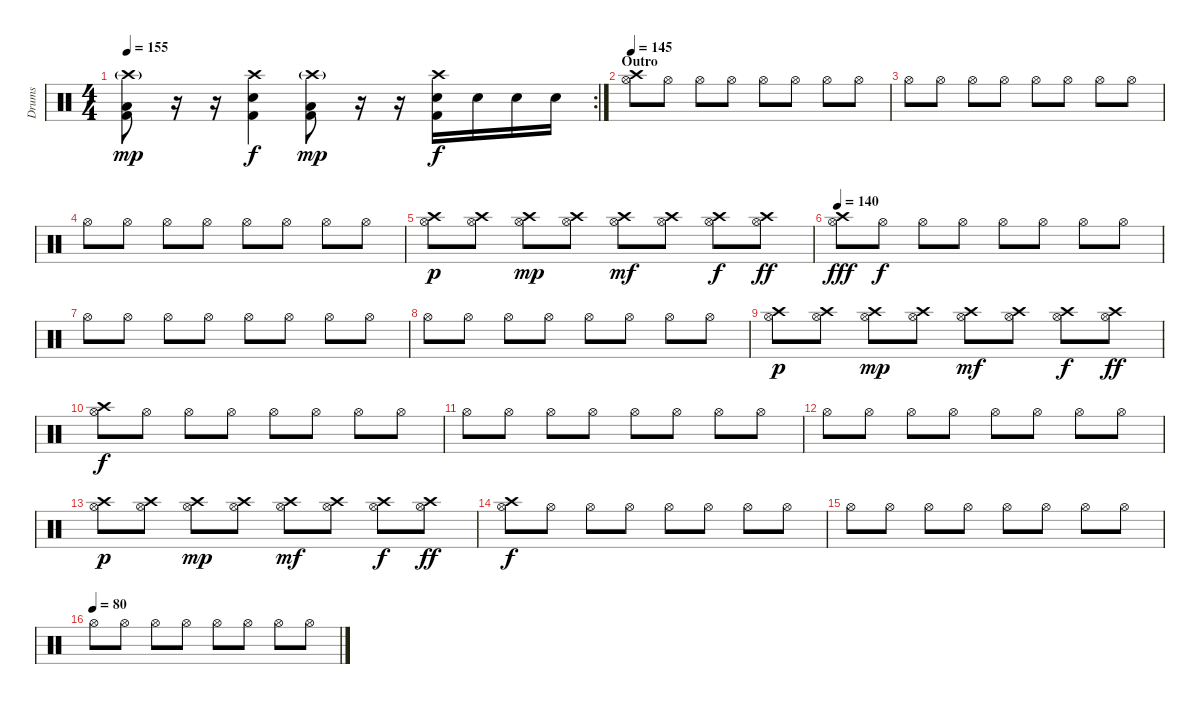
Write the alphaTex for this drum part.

\track ("Drums" "Drums") {instrument percussion}
\staff {score}
\articulation defaults
\rc 2
\ts (4 4)
\tempo 155
\clef neutral
\ks c
("Crash high (hit)"{g} "Low Tom (hit)" "Kick (hit) 2").8{dy mp} r.16 r.16 ("Crash high (hit)" "Electric Snare (hit)" "Kick (hit) 2").4{dy f} ("Crash high (hit)"{g} "Low Tom (hit)" "Kick (hit) 2").8{dy mp} r.16 r.16 ("Crash high (hit)" "Electric Snare (hit)" "Kick (hit) 2").16{dy f} "Electric Snare (hit)".16 "Electric Snare (hit)".16 "Electric Snare (hit)".16 |
\section ("" "Outro")
\tempo 145
("Hi-Hat (open)" "Crash high (hit)").8 "Hi-Hat (open)".8 "Hi-Hat (open)".8 "Hi-Hat (open)".8 "Hi-Hat (open)".8 "Hi-Hat (open)".8 "Hi-Hat (open)".8 "Hi-Hat (open)".8 |
"Hi-Hat (open)".8 "Hi-Hat (open)".8 "Hi-Hat (open)".8 "Hi-Hat (open)".8 "Hi-Hat (open)".8 "Hi-Hat (open)".8 "Hi-Hat (open)".8 "Hi-Hat (open)".8 |
"Hi-Hat (open)".8 "Hi-Hat (open)".8 "Hi-Hat (open)".8 "Hi-Hat (open)".8 "Hi-Hat (open)".8 "Hi-Hat (open)".8 "Hi-Hat (open)".8 "Hi-Hat (open)".8 |
("Hi-Hat (open)" "Crash high (hit)").8{dy p} ("Hi-Hat (open)" "Crash high (hit)").8 ("Hi-Hat (open)" "Crash high (hit)").8{dy mp} ("Hi-Hat (open)" "Crash high (hit)").8 ("Hi-Hat (open)" "Crash high (hit)").8{dy mf} ("Hi-Hat (open)" "Crash high (hit)").8 ("Hi-Hat (open)" "Crash high (hit)").8{dy f} ("Hi-Hat (open)" "Crash high (hit)").8{dy ff} |
\tempo 140
("Hi-Hat (open)" "Crash high (hit)").8{dy fff} "Hi-Hat (open)".8{dy f} "Hi-Hat (open)".8 "Hi-Hat (open)".8 "Hi-Hat (open)".8 "Hi-Hat (open)".8 "Hi-Hat (open)".8 "Hi-Hat (open)".8 |
"Hi-Hat (open)".8 "Hi-Hat (open)".8 "Hi-Hat (open)".8 "Hi-Hat (open)".8 "Hi-Hat (open)".8 "Hi-Hat (open)".8 "Hi-Hat (open)".8 "Hi-Hat (open)".8 |
"Hi-Hat (open)".8 "Hi-Hat (open)".8 "Hi-Hat (open)".8 "Hi-Hat (open)".8 "Hi-Hat (open)".8 "Hi-Hat (open)".8 "Hi-Hat (open)".8 "Hi-Hat (open)".8 |
("Hi-Hat (open)" "Crash high (hit)").8{dy p} ("Hi-Hat (open)" "Crash high (hit)").8 ("Hi-Hat (open)" "Crash high (hit)").8{dy mp} ("Hi-Hat (open)" "Crash high (hit)").8 ("Hi-Hat (open)" "Crash high (hit)").8{dy mf} ("Hi-Hat (open)" "Crash high (hit)").8 ("Hi-Hat (open)" "Crash high (hit)").8{dy f} ("Hi-Hat (open)" "Crash high (hit)").8{dy ff} |
("Hi-Hat (open)" "Crash high (hit)").8{dy f} "Hi-Hat (open)".8 "Hi-Hat (open)".8 "Hi-Hat (open)".8 "Hi-Hat (open)".8 "Hi-Hat (open)".8 "Hi-Hat (open)".8 "Hi-Hat (open)".8 |
"Hi-Hat (open)".8 "Hi-Hat (open)".8 "Hi-Hat (open)".8 "Hi-Hat (open)".8 "Hi-Hat (open)".8 "Hi-Hat (open)".8 "Hi-Hat (open)".8 "Hi-Hat (open)".8 |
"Hi-Hat (open)".8 "Hi-Hat (open)".8 "Hi-Hat (open)".8 "Hi-Hat (open)".8 "Hi-Hat (open)".8 "Hi-Hat (open)".8 "Hi-Hat (open)".8 "Hi-Hat (open)".8 |
("Hi-Hat (open)" "Crash high (hit)").8{dy p} ("Hi-Hat (open)" "Crash high (hit)").8 ("Hi-Hat (open)" "Crash high (hit)").8{dy mp} ("Hi-Hat (open)" "Crash high (hit)").8 ("Hi-Hat (open)" "Crash high (hit)").8{dy mf} ("Hi-Hat (open)" "Crash high (hit)").8 ("Hi-Hat (open)" "Crash high (hit)").8{dy f} ("Hi-Hat (open)" "Crash high (hit)").8{dy ff} |
("Hi-Hat (open)" "Crash high (hit)").8{dy f} "Hi-Hat (open)".8 "Hi-Hat (open)".8 "Hi-Hat (open)".8 "Hi-Hat (open)".8 "Hi-Hat (open)".8 "Hi-Hat (open)".8 "Hi-Hat (open)".8 |
"Hi-Hat (open)".8 "Hi-Hat (open)".8 "Hi-Hat (open)".8 "Hi-Hat (open)".8 "Hi-Hat (open)".8 "Hi-Hat (open)".8 "Hi-Hat (open)".8 "Hi-Hat (open)".8 |
\tempo (80)
"Hi-Hat (open)".8 "Hi-Hat (open)".8 "Hi-Hat (open)".8 "Hi-Hat (open)".8 "Hi-Hat (open)".8 "Hi-Hat (open)".8 "Hi-Hat (open)".8 "Hi-Hat (open)".8
